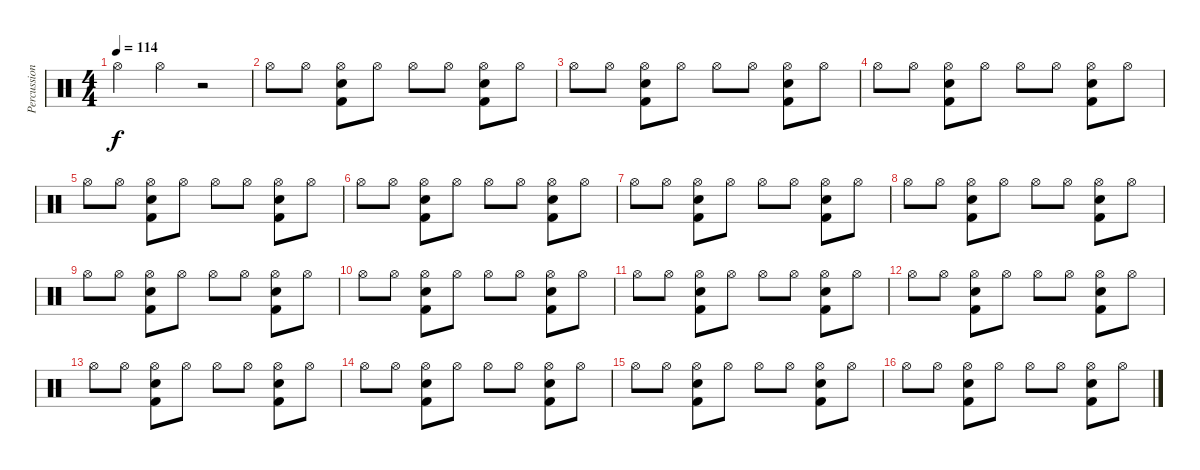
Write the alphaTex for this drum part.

\track ("Percussion" "Percussion") {instrument percussion}
\staff {score}
\articulation defaults
\ts (4 4)
\tempo 114
\clef neutral
\ks c "Hi-Hat (open)".4{dy f} "Hi-Hat (open)".4
r.2 |
"Hi-Hat (open)".8 "Hi-Hat (open)".8 ("Hi-Hat (open)" "Snare (hit) 2" "Kick (hit) 2").8 "Hi-Hat (open)".8 "Hi-Hat (open)".8 "Hi-Hat (open)".8 ("Hi-Hat (open)" "Snare (hit) 2" "Kick (hit) 2").8 "Hi-Hat (open)".8 |
"Hi-Hat (open)".8 "Hi-Hat (open)".8 ("Hi-Hat (open)" "Snare (hit) 2" "Kick (hit) 2").8 "Hi-Hat (open)".8 "Hi-Hat (open)".8 "Hi-Hat (open)".8 ("Hi-Hat (open)" "Snare (hit) 2" "Kick (hit) 2").8 "Hi-Hat (open)".8 |
"Hi-Hat (open)".8 "Hi-Hat (open)".8 ("Hi-Hat (open)" "Snare (hit) 2" "Kick (hit) 2").8 "Hi-Hat (open)".8 "Hi-Hat (open)".8 "Hi-Hat (open)".8 ("Hi-Hat (open)" "Snare (hit) 2" "Kick (hit) 2").8 "Hi-Hat (open)".8 |
"Hi-Hat (open)".8 "Hi-Hat (open)".8 ("Hi-Hat (open)" "Snare (hit) 2" "Kick (hit) 2").8 "Hi-Hat (open)".8 "Hi-Hat (open)".8 "Hi-Hat (open)".8 ("Hi-Hat (open)" "Snare (hit) 2" "Kick (hit) 2").8 "Hi-Hat (open)".8 |
"Hi-Hat (open)".8 "Hi-Hat (open)".8 ("Hi-Hat (open)" "Snare (hit) 2" "Kick (hit) 2").8 "Hi-Hat (open)".8 "Hi-Hat (open)".8 "Hi-Hat (open)".8 ("Hi-Hat (open)" "Snare (hit) 2" "Kick (hit) 2").8 "Hi-Hat (open)".8 |
"Hi-Hat (open)".8 "Hi-Hat (open)".8 ("Hi-Hat (open)" "Snare (hit) 2" "Kick (hit) 2").8 "Hi-Hat (open)".8 "Hi-Hat (open)".8 "Hi-Hat (open)".8 ("Hi-Hat (open)" "Snare (hit) 2" "Kick (hit) 2").8 "Hi-Hat (open)".8 |
"Hi-Hat (open)".8 "Hi-Hat (open)".8 ("Hi-Hat (open)" "Snare (hit) 2" "Kick (hit) 2").8 "Hi-Hat (open)".8 "Hi-Hat (open)".8 "Hi-Hat (open)".8 ("Hi-Hat (open)" "Snare (hit) 2" "Kick (hit) 2").8 "Hi-Hat (open)".8 |
"Hi-Hat (open)".8 "Hi-Hat (open)".8 ("Hi-Hat (open)" "Snare (hit) 2" "Kick (hit) 2").8 "Hi-Hat (open)".8 "Hi-Hat (open)".8 "Hi-Hat (open)".8 ("Hi-Hat (open)" "Snare (hit) 2" "Kick (hit) 2").8 "Hi-Hat (open)".8 |
"Hi-Hat (open)".8 "Hi-Hat (open)".8 ("Hi-Hat (open)" "Snare (hit) 2" "Kick (hit) 2").8 "Hi-Hat (open)".8 "Hi-Hat (open)".8 "Hi-Hat (open)".8 ("Hi-Hat (open)" "Snare (hit) 2" "Kick (hit) 2").8 "Hi-Hat (open)".8 |
"Hi-Hat (open)".8 "Hi-Hat (open)".8 ("Hi-Hat (open)" "Snare (hit) 2" "Kick (hit) 2").8 "Hi-Hat (open)".8 "Hi-Hat (open)".8 "Hi-Hat (open)".8 ("Hi-Hat (open)" "Snare (hit) 2" "Kick (hit) 2").8 "Hi-Hat (open)".8 |
"Hi-Hat (open)".8 "Hi-Hat (open)".8 ("Hi-Hat (open)" "Snare (hit) 2" "Kick (hit) 2").8 "Hi-Hat (open)".8 "Hi-Hat (open)".8 "Hi-Hat (open)".8 ("Hi-Hat (open)" "Snare (hit) 2" "Kick (hit) 2").8 "Hi-Hat (open)".8 |
"Hi-Hat (open)".8 "Hi-Hat (open)".8 ("Hi-Hat (open)" "Snare (hit) 2" "Kick (hit) 2").8 "Hi-Hat (open)".8 "Hi-Hat (open)".8 "Hi-Hat (open)".8 ("Hi-Hat (open)" "Snare (hit) 2" "Kick (hit) 2").8 "Hi-Hat (open)".8 |
"Hi-Hat (open)".8 "Hi-Hat (open)".8 ("Hi-Hat (open)" "Snare (hit) 2" "Kick (hit) 2").8 "Hi-Hat (open)".8 "Hi-Hat (open)".8 "Hi-Hat (open)".8 ("Hi-Hat (open)" "Snare (hit) 2" "Kick (hit) 2").8 "Hi-Hat (open)".8 |
"Hi-Hat (open)".8 "Hi-Hat (open)".8 ("Hi-Hat (open)" "Snare (hit) 2" "Kick (hit) 2").8 "Hi-Hat (open)".8 "Hi-Hat (open)".8 "Hi-Hat (open)".8 ("Hi-Hat (open)" "Snare (hit) 2" "Kick (hit) 2").8 "Hi-Hat (open)".8 |
"Hi-Hat (open)".8 "Hi-Hat (open)".8 ("Hi-Hat (open)" "Snare (hit) 2" "Kick (hit) 2").8 "Hi-Hat (open)".8 "Hi-Hat (open)".8 "Hi-Hat (open)".8 ("Hi-Hat (open)" "Snare (hit) 2" "Kick (hit) 2").8 "Hi-Hat (open)".8
